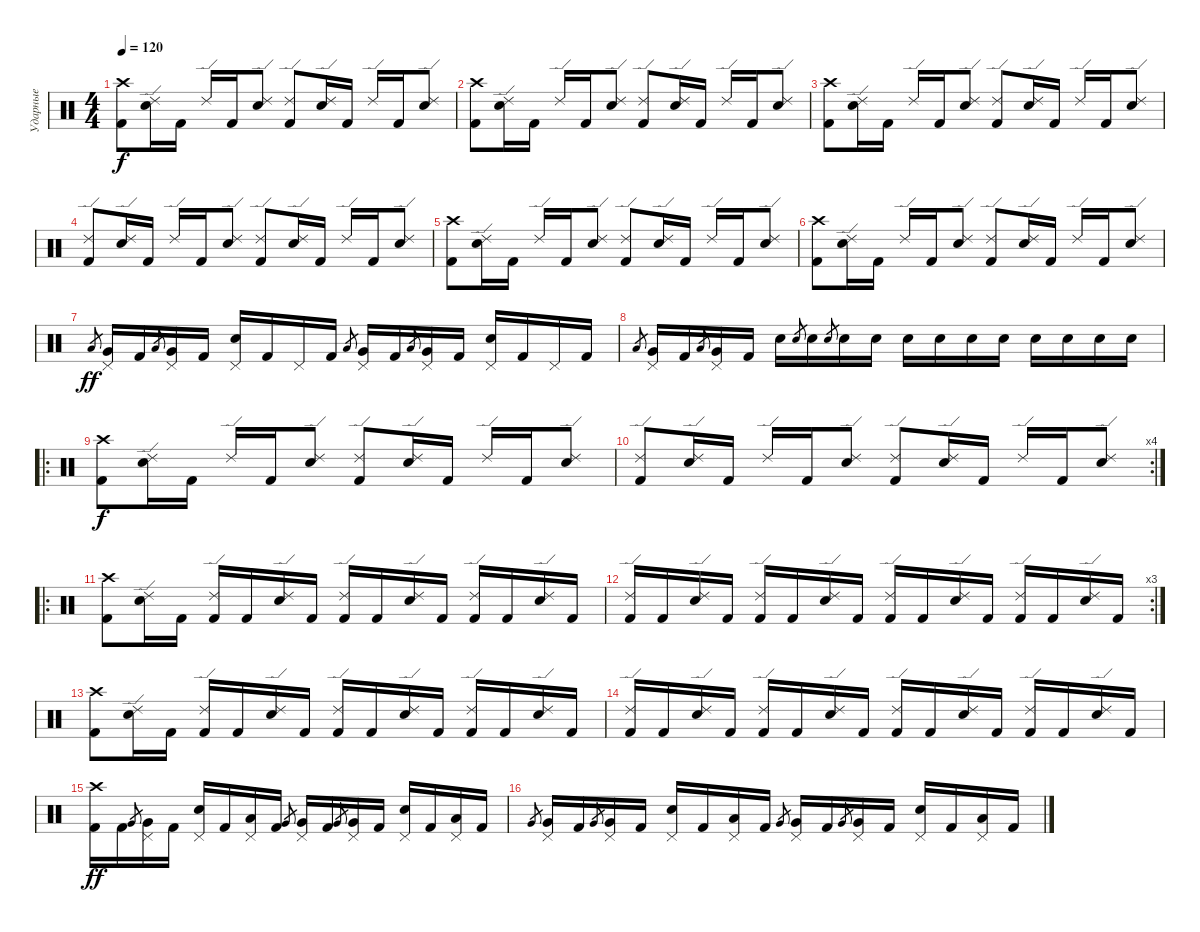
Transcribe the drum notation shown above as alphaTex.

\track ("Ударные" "Ударные") {instrument percussion}
\staff {score}
\articulation defaults
\ts (4 4)
\tempo 120
\clef neutral
\ks c
("Kick (hit) 2" "Crash high (hit)").8{dy f} ("Electric Snare (hit)" "Ride (edge) 2").16 "Kick (hit) 2".16 "Ride (edge) 2".16 "Kick (hit) 2".16 ("Electric Snare (hit)" "Ride (edge) 2").8 ("Kick (hit) 2" "Ride (edge) 2").8 ("Electric Snare (hit)" "Ride (edge) 2").16 "Kick (hit) 2".16 "Ride (edge) 2".16 "Kick (hit) 2".16 ("Electric Snare (hit)" "Ride (edge) 2").8 |
("Kick (hit) 2" "Crash high (hit)").8 ("Electric Snare (hit)" "Ride (edge) 2").16 "Kick (hit) 2".16 "Ride (edge) 2".16 "Kick (hit) 2".16 ("Electric Snare (hit)" "Ride (edge) 2").8 ("Kick (hit) 2" "Ride (edge) 2").8 ("Electric Snare (hit)" "Ride (edge) 2").16 "Kick (hit) 2".16 "Ride (edge) 2".16 "Kick (hit) 2".16 ("Electric Snare (hit)" "Ride (edge) 2").8 |
("Kick (hit) 2" "Crash high (hit)").8 ("Electric Snare (hit)" "Ride (edge) 2").16 "Kick (hit) 2".16 "Ride (edge) 2".16 "Kick (hit) 2".16 ("Electric Snare (hit)" "Ride (edge) 2").8 ("Kick (hit) 2" "Ride (edge) 2").8 ("Electric Snare (hit)" "Ride (edge) 2").16 "Kick (hit) 2".16 "Ride (edge) 2".16 "Kick (hit) 2".16 ("Electric Snare (hit)" "Ride (edge) 2").8 |
("Kick (hit) 2" "Ride (edge) 2").8 ("Electric Snare (hit)" "Ride (edge) 2").16 "Kick (hit) 2".16 "Ride (edge) 2".16 "Kick (hit) 2".16 ("Electric Snare (hit)" "Ride (edge) 2").8 ("Kick (hit) 2" "Ride (edge) 2").8 ("Electric Snare (hit)" "Ride (edge) 2").16 "Kick (hit) 2".16 "Ride (edge) 2".16 "Kick (hit) 2".16 ("Electric Snare (hit)" "Ride (edge) 2").8 |
("Kick (hit) 2" "Crash high (hit)").8 ("Electric Snare (hit)" "Ride (edge) 2").16 "Kick (hit) 2".16 "Ride (edge) 2".16 "Kick (hit) 2".16 ("Electric Snare (hit)" "Ride (edge) 2").8 ("Kick (hit) 2" "Ride (edge) 2").8 ("Electric Snare (hit)" "Ride (edge) 2").16 "Kick (hit) 2".16 "Ride (edge) 2".16 "Kick (hit) 2".16 ("Electric Snare (hit)" "Ride (edge) 2").8 |
("Kick (hit) 2" "Crash high (hit)").8 ("Electric Snare (hit)" "Ride (edge) 2").16 "Kick (hit) 2".16 "Ride (edge) 2".16 "Kick (hit) 2".16 ("Electric Snare (hit)" "Ride (edge) 2").8 ("Kick (hit) 2" "Ride (edge) 2").8 ("Electric Snare (hit)" "Ride (edge) 2").16 "Kick (hit) 2".16 "Ride (edge) 2".16 "Kick (hit) 2".16 ("Electric Snare (hit)" "Ride (edge) 2").8 |
"Low Tom (hit)".8{gr dy ff} ("Pedal Hi-Hat (hit)" "Very Low Tom (hit)").16 "Kick (hit) 2".16 "Low Tom (hit)".8{gr} ("Pedal Hi-Hat (hit)" "Very Low Tom (hit)").16 "Kick (hit) 2".16 ("Pedal Hi-Hat (hit)" "Electric Snare (hit)").16 "Kick (hit) 2".16 "Pedal Hi-Hat (hit)".16 "Kick (hit) 2".16 "Low Tom (hit)".8{gr} ("Pedal Hi-Hat (hit)" "Very Low Tom (hit)").16 "Kick (hit) 2".16 "Low Tom (hit)".8{gr} ("Pedal Hi-Hat (hit)" "Very Low Tom (hit)").16 "Kick (hit) 2".16 ("Pedal Hi-Hat (hit)" "Electric Snare (hit)").16 "Kick (hit) 2".16 "Pedal Hi-Hat (hit)".16 "Kick (hit) 2".16 |
"Low Tom (hit)".8{gr} ("Pedal Hi-Hat (hit)" "Very Low Tom (hit)").16 "Kick (hit) 2".16 "Low Tom (hit)".8{gr} ("Pedal Hi-Hat (hit)" "Very Low Tom (hit)").16 "Kick (hit) 2".16 "Electric Snare (hit)".16 "Electric Snare (hit)".8{gr} "Electric Snare (hit)".16 "Electric Snare (hit)".8{gr} "Electric Snare (hit)".16 "Electric Snare (hit)".16 "Electric Snare (hit)".16 "Electric Snare (hit)".16 "Electric Snare (hit)".16 "Electric Snare (hit)".16 "Electric Snare (hit)".16 "Electric Snare (hit)".16 "Electric Snare (hit)".16 "Electric Snare (hit)".16 |
\ro
("Kick (hit) 2" "Crash high (hit)").8{dy f} ("Electric Snare (hit)" "Ride (edge) 2").16 "Kick (hit) 2".16 "Ride (edge) 2".16 "Kick (hit) 2".16 ("Electric Snare (hit)" "Ride (edge) 2").8 ("Kick (hit) 2" "Ride (edge) 2").8 ("Electric Snare (hit)" "Ride (edge) 2").16 "Kick (hit) 2".16 "Ride (edge) 2".16 "Kick (hit) 2".16 ("Electric Snare (hit)" "Ride (edge) 2").8 |
\rc 4
("Kick (hit) 2" "Ride (edge) 2").8 ("Electric Snare (hit)" "Ride (edge) 2").16 "Kick (hit) 2".16 "Ride (edge) 2".16 "Kick (hit) 2".16 ("Electric Snare (hit)" "Ride (edge) 2").8 ("Kick (hit) 2" "Ride (edge) 2").8 ("Electric Snare (hit)" "Ride (edge) 2").16 "Kick (hit) 2".16 "Ride (edge) 2".16 "Kick (hit) 2".16 ("Electric Snare (hit)" "Ride (edge) 2").8 |
\ro
("Kick (hit) 2" "Crash high (hit)").8 ("Electric Snare (hit)" "Ride (edge) 2").16 "Kick (hit) 2".16 ("Kick (hit) 2" "Ride (edge) 2").16 "Kick (hit) 2".16 ("Electric Snare (hit)" "Ride (edge) 2").16 "Kick (hit) 2".16 ("Kick (hit) 2" "Ride (edge) 2").16 "Kick (hit) 2".16 ("Electric Snare (hit)" "Ride (edge) 2").16 "Kick (hit) 2".16 ("Kick (hit) 2" "Ride (edge) 2").16 "Kick (hit) 2".16 ("Electric Snare (hit)" "Ride (edge) 2").16 "Kick (hit) 2".16 |
\rc 3
("Kick (hit) 2" "Ride (edge) 2").16 "Kick (hit) 2".16 ("Electric Snare (hit)" "Ride (edge) 2").16 "Kick (hit) 2".16 ("Kick (hit) 2" "Ride (edge) 2").16 "Kick (hit) 2".16 ("Electric Snare (hit)" "Ride (edge) 2").16 "Kick (hit) 2".16 ("Kick (hit) 2" "Ride (edge) 2").16 "Kick (hit) 2".16 ("Electric Snare (hit)" "Ride (edge) 2").16 "Kick (hit) 2".16 ("Kick (hit) 2" "Ride (edge) 2").16 "Kick (hit) 2".16 ("Electric Snare (hit)" "Ride (edge) 2").16 "Kick (hit) 2".16 |
("Kick (hit) 2" "Crash high (hit)").8 ("Electric Snare (hit)" "Ride (edge) 2").16 "Kick (hit) 2".16 ("Kick (hit) 2" "Ride (edge) 2").16 "Kick (hit) 2".16 ("Electric Snare (hit)" "Ride (edge) 2").16 "Kick (hit) 2".16 ("Kick (hit) 2" "Ride (edge) 2").16 "Kick (hit) 2".16 ("Electric Snare (hit)" "Ride (edge) 2").16 "Kick (hit) 2".16 ("Kick (hit) 2" "Ride (edge) 2").16 "Kick (hit) 2".16 ("Electric Snare (hit)" "Ride (edge) 2").16 "Kick (hit) 2".16 |
("Kick (hit) 2" "Ride (edge) 2").16 "Kick (hit) 2".16 ("Electric Snare (hit)" "Ride (edge) 2").16 "Kick (hit) 2".16 ("Kick (hit) 2" "Ride (edge) 2").16 "Kick (hit) 2".16 ("Electric Snare (hit)" "Ride (edge) 2").16 "Kick (hit) 2".16 ("Kick (hit) 2" "Ride (edge) 2").16 "Kick (hit) 2".16 ("Electric Snare (hit)" "Ride (edge) 2").16 "Kick (hit) 2".16 ("Kick (hit) 2" "Ride (edge) 2").16 "Kick (hit) 2".16 ("Electric Snare (hit)" "Ride (edge) 2").16 "Kick (hit) 2".16 |
("Kick (hit) 2" "Crash high (hit)").16{dy ff} "Kick (hit) 2".16 "Very Low Tom (hit)".8{gr} ("Pedal Hi-Hat (hit)" "Very Low Tom (hit)").16 "Kick (hit) 2".16 ("Pedal Hi-Hat (hit)" "Electric Snare (hit)").16 "Kick (hit) 2".16 ("Pedal Hi-Hat (hit)" "Low Tom (hit)").16 "Kick (hit) 2".16 "Very Low Tom (hit)".8{gr} ("Pedal Hi-Hat (hit)" "Very Low Tom (hit)").16 "Kick (hit) 2".16 "Very Low Tom (hit)".8{gr} ("Pedal Hi-Hat (hit)" "Very Low Tom (hit)").16 "Kick (hit) 2".16 ("Pedal Hi-Hat (hit)" "Electric Snare (hit)").16 "Kick (hit) 2".16 ("Pedal Hi-Hat (hit)" "Low Tom (hit)").16 "Kick (hit) 2".16 |
"Very Low Tom (hit)".8{gr} ("Pedal Hi-Hat (hit)" "Very Low Tom (hit)").16 "Kick (hit) 2".16 "Very Low Tom (hit)".8{gr} ("Pedal Hi-Hat (hit)" "Very Low Tom (hit)").16 "Kick (hit) 2".16 ("Pedal Hi-Hat (hit)" "Electric Snare (hit)").16 "Kick (hit) 2".16 ("Pedal Hi-Hat (hit)" "Low Tom (hit)").16 "Kick (hit) 2".16 "Very Low Tom (hit)".8{gr} ("Pedal Hi-Hat (hit)" "Very Low Tom (hit)").16 "Kick (hit) 2".16 "Very Low Tom (hit)".8{gr} ("Pedal Hi-Hat (hit)" "Very Low Tom (hit)").16 "Kick (hit) 2".16 ("Pedal Hi-Hat (hit)" "Electric Snare (hit)").16 "Kick (hit) 2".16 ("Pedal Hi-Hat (hit)" "Low Tom (hit)").16 "Kick (hit) 2".16
